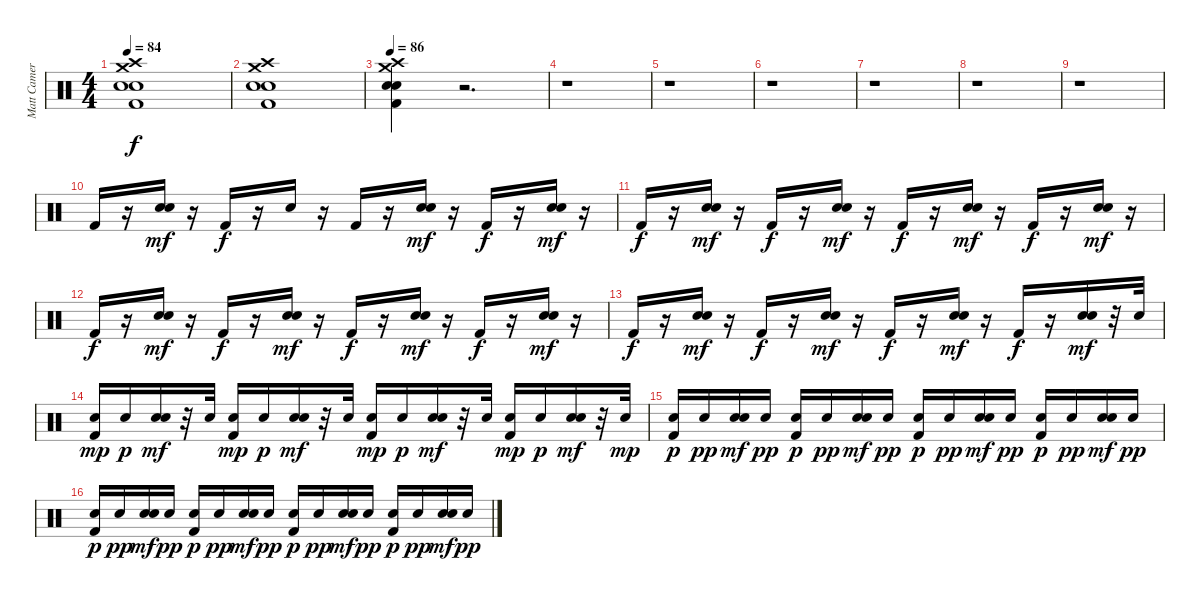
\track ("Matt Cameron" "Matt Camer") {instrument percussion}
\staff
\articulation defaults
\ts (4 4)
\tempo 84
\clef neutral
\ks c
("Crash high (hit)" "Crash medium (hit)" "Electric Snare (hit)" "Snare (hit) 2" "Kick (hit) 2").1{dy f} |
("Crash high (hit)" "Crash medium (hit)" "Electric Snare (hit)" "Snare (hit) 2" "Kick (hit) 2").1 |
\tempo 86
("Crash high (hit)" "Crash medium (hit)" "Electric Snare (hit)" "Snare (hit) 2" "Kick (hit) 2").4 r.2{d} |
r.1 |
r.1 |
r.1 |
r.1 |
r.1 |
r.1{volume 3 balance 2} |
"Kick (hit) 2".16{volume 12} r.16 ("Snare (hit) 2" "Electric Snare (hit)").16{dy mf} r.16 "Kick (hit) 2".16{dy f} r.16 "Snare (hit) 2".16 r.16 "Kick (hit) 2".16 r.16 ("Electric Snare (hit)" "Snare (hit) 2").16{dy mf} r.16 "Kick (hit) 2".16{dy f volume 8} r.16 ("Electric Snare (hit)" "Snare (hit) 2").16{dy mf} r.16 |
"Kick (hit) 2".16{dy f} r.16 ("Electric Snare (hit)" "Snare (hit) 2").16{dy mf} r.16 "Kick (hit) 2".16{dy f volume 12} r.16 ("Electric Snare (hit)" "Snare (hit) 2").16{dy mf} r.16 "Kick (hit) 2".16{dy f} r.16 ("Electric Snare (hit)" "Snare (hit) 2").16{dy mf} r.16 "Kick (hit) 2".16{dy f} r.16 ("Electric Snare (hit)" "Snare (hit) 2").16{dy mf} r.16 |
"Kick (hit) 2".16{dy f} r.16 ("Electric Snare (hit)" "Snare (hit) 2").16{dy mf} r.16 "Kick (hit) 2".16{dy f} r.16 ("Electric Snare (hit)" "Snare (hit) 2").16{dy mf} r.16 "Kick (hit) 2".16{dy f} r.16 ("Electric Snare (hit)" "Snare (hit) 2").16{dy mf} r.16 "Kick (hit) 2".16{dy f} r.16 ("Electric Snare (hit)" "Snare (hit) 2").16{dy mf} r.16 |
"Kick (hit) 2".16{dy f} r.16 ("Electric Snare (hit)" "Snare (hit) 2").16{dy mf} r.16 "Kick (hit) 2".16{dy f} r.16 ("Electric Snare (hit)" "Snare (hit) 2").16{dy mf} r.16 "Kick (hit) 2".16{dy f} r.16 ("Electric Snare (hit)" "Snare (hit) 2").16{dy mf} r.16 "Kick (hit) 2".16{dy f} r.16 ("Electric Snare (hit)" "Snare (hit) 2").16{dy mf} r.32 "Snare (hit) 2".32 |
("Kick (hit) 2" "Snare (hit) 2").16{dy mp} "Snare (hit) 2".16{dy p} ("Electric Snare (hit)" "Snare (hit) 2").16{dy mf} r.32 "Snare (hit) 2".32 ("Kick (hit) 2" "Snare (hit) 2").16{dy mp} "Snare (hit) 2".16{dy p} ("Electric Snare (hit)" "Snare (hit) 2").16{dy mf} r.32 "Snare (hit) 2".32 ("Kick (hit) 2" "Snare (hit) 2").16{dy mp} "Snare (hit) 2".16{dy p} ("Electric Snare (hit)" "Snare (hit) 2").16{dy mf} r.32 "Snare (hit) 2".32 ("Kick (hit) 2" "Snare (hit) 2").16{dy mp} "Snare (hit) 2".16{dy p} ("Electric Snare (hit)" "Snare (hit) 2").16{dy mf} r.32 "Snare (hit) 2".32{dy mp} |
("Kick (hit) 2" "Snare (hit) 2").16{dy p} "Snare (hit) 2".16{dy pp} ("Electric Snare (hit)" "Snare (hit) 2").16{dy mf} "Snare (hit) 2".16{dy pp} ("Kick (hit) 2" "Snare (hit) 2").16{dy p} "Snare (hit) 2".16{dy pp} ("Electric Snare (hit)" "Snare (hit) 2").16{dy mf} "Snare (hit) 2".16{dy pp} ("Kick (hit) 2" "Snare (hit) 2").16{dy p} "Snare (hit) 2".16{dy pp} ("Electric Snare (hit)" "Snare (hit) 2").16{dy mf} "Snare (hit) 2".16{dy pp} ("Kick (hit) 2" "Snare (hit) 2").16{dy p} "Snare (hit) 2".16{dy pp} ("Electric Snare (hit)" "Snare (hit) 2").16{dy mf} "Snare (hit) 2".16{dy pp} |
("Kick (hit) 2" "Snare (hit) 2").16{dy p} "Snare (hit) 2".16{dy pp} ("Electric Snare (hit)" "Snare (hit) 2").16{dy mf} "Snare (hit) 2".16{dy pp} ("Kick (hit) 2" "Snare (hit) 2").16{dy p} "Snare (hit) 2".16{dy pp} ("Electric Snare (hit)" "Snare (hit) 2").16{dy mf} "Snare (hit) 2".16{dy pp} ("Kick (hit) 2" "Snare (hit) 2").16{dy p} "Snare (hit) 2".16{dy pp} ("Electric Snare (hit)" "Snare (hit) 2").16{dy mf} "Snare (hit) 2".16{dy pp} ("Kick (hit) 2" "Snare (hit) 2").16{dy p} "Snare (hit) 2".16{dy pp} ("Electric Snare (hit)" "Snare (hit) 2").16{dy mf} "Snare (hit) 2".16{dy pp}
